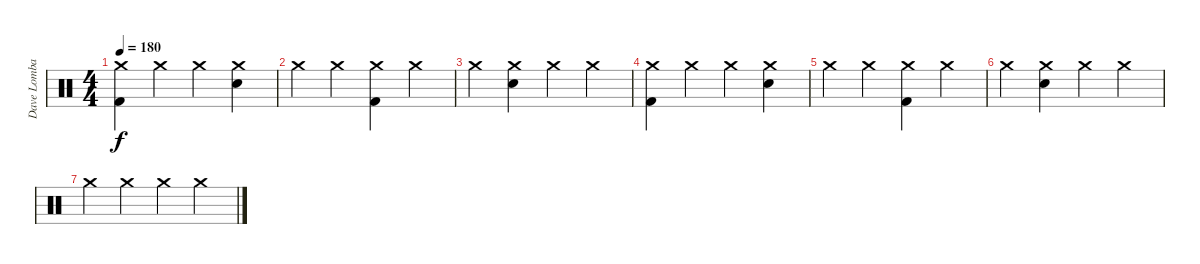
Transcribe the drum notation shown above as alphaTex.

\track ("Dave Lombardo" "Dave Lomba") {instrument percussion}
\staff {score}
\articulation defaults
\ts (4 4)
\tempo 180
\clef neutral
\ks c
("Crash medium (hit)" "Kick (hit) 2").4{dy f} "Crash medium (hit)".4 "Crash medium (hit)".4 ("Crash medium (hit)" "Electric Snare (hit)").4 |
"Crash medium (hit)".4 "Crash medium (hit)".4 ("Crash medium (hit)" "Kick (hit) 2").4 "Crash medium (hit)".4 |
"Crash medium (hit)".4 ("Crash medium (hit)" "Electric Snare (hit)").4 "Crash medium (hit)".4 "Crash medium (hit)".4 |
("Crash medium (hit)" "Kick (hit) 2").4 "Crash medium (hit)".4 "Crash medium (hit)".4 ("Crash medium (hit)" "Electric Snare (hit)").4 |
"Crash medium (hit)".4 "Crash medium (hit)".4 ("Crash medium (hit)" "Kick (hit) 2").4 "Crash medium (hit)".4 |
"Crash medium (hit)".4 ("Crash medium (hit)" "Electric Snare (hit)").4 "Crash medium (hit)".4 "Crash medium (hit)".4 |
"Crash medium (hit)".4 "Crash medium (hit)".4 "Crash medium (hit)".4 "Crash medium (hit)".4
